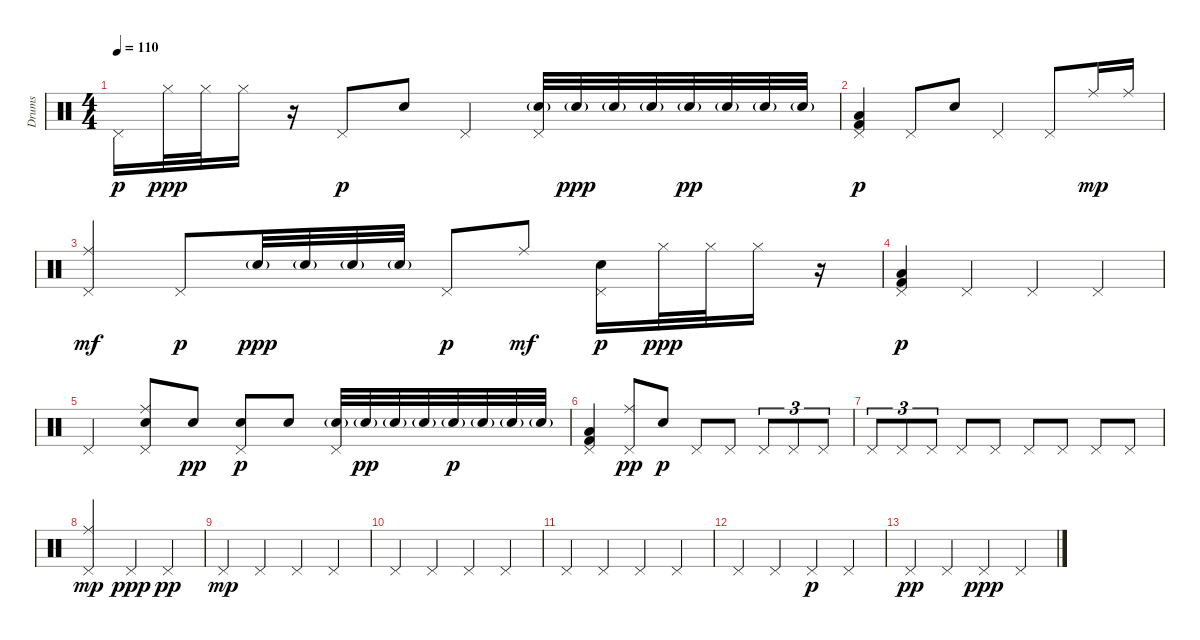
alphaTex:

\track ("Drums" "Drums") {instrument percussion}
\staff {score}
\articulation defaults
\ts (4 4)
\tempo 110
\clef neutral
\ks c "Pedal Hi-Hat (hit)".16{dy p} "Hi-Hat (closed)".32{dy ppp} "Hi-Hat (closed)".32 "Hi-Hat (closed)".16
r.16 "Pedal Hi-Hat (hit)".8{dy p} "Snare (hit) 2".8 "Pedal Hi-Hat (hit)".4 ("Snare (hit) 2"{g} "Pedal Hi-Hat (hit)").32 "Snare (hit) 2"{g}.32{dy ppp} "Snare (hit) 2"{g}.32 "Snare (hit) 2"{g}.32 "Snare (hit) 2"{g}.32{dy pp} "Snare (hit) 2"{g}.32 "Snare (hit) 2"{g}.32 "Snare (hit) 2"{g}.32 |
("Kick (hit) 2" "Low Floor Tom (hit)" "Pedal Hi-Hat (hit)").4{dy p} "Pedal Hi-Hat (hit)".8 "Snare (hit) 2".8 "Pedal Hi-Hat (hit)".4 "Pedal Hi-Hat (hit)".8 "Ride (middle)".16{dy mp} "Ride (middle)".16 |
("Pedal Hi-Hat (hit)" "Ride (middle)").4{dy mf} "Pedal Hi-Hat (hit)".8{dy p} "Snare (hit) 2"{g}.32{dy ppp} "Snare (hit) 2"{g}.32 "Snare (hit) 2"{g}.32 "Snare (hit) 2"{g}.32 "Pedal Hi-Hat (hit)".8{dy p} "Ride (middle)".8{dy mf} ("Snare (hit) 2" "Pedal Hi-Hat (hit)").16{dy p} "Hi-Hat (closed)".32{dy ppp} "Hi-Hat (closed)".32 "Hi-Hat (closed)".16 r.16 |
("Kick (hit) 2" "Low Floor Tom (hit)" "Pedal Hi-Hat (hit)").4{dy p} "Pedal Hi-Hat (hit)".4 "Pedal Hi-Hat (hit)".4 "Pedal Hi-Hat (hit)".4 |
"Pedal Hi-Hat (hit)".4 ("Snare (hit) 2" "Pedal Hi-Hat (hit)" "Ride (middle)").8 "Snare (hit) 2".8{dy pp} ("Snare (hit) 2" "Pedal Hi-Hat (hit)").8{dy p} "Snare (hit) 2".8 ("Snare (hit) 2"{g} "Pedal Hi-Hat (hit)").32 "Snare (hit) 2"{g}.32{dy pp} "Snare (hit) 2"{g}.32 "Snare (hit) 2"{g}.32 "Snare (hit) 2"{g}.32{dy p} "Snare (hit) 2"{g}.32 "Snare (hit) 2"{g}.32 "Snare (hit) 2"{g}.32 |
("Kick (hit) 2" "Low Floor Tom (hit)" "Pedal Hi-Hat (hit)").4 ("Pedal Hi-Hat (hit)" "Ride (middle)").8{dy pp} "Snare (hit) 2".8{dy p} "Pedal Hi-Hat (hit)".8 "Pedal Hi-Hat (hit)".8 "Pedal Hi-Hat (hit)".8{tu (3 2)} "Pedal Hi-Hat (hit)".8{tu (3 2)} "Pedal Hi-Hat (hit)".8{tu (3 2)} |
"Pedal Hi-Hat (hit)".8{tu (3 2)} "Pedal Hi-Hat (hit)".8{tu (3 2)} "Pedal Hi-Hat (hit)".8{tu (3 2)} "Pedal Hi-Hat (hit)".8 "Pedal Hi-Hat (hit)".8 "Pedal Hi-Hat (hit)".8 "Pedal Hi-Hat (hit)".8 "Pedal Hi-Hat (hit)".8 "Pedal Hi-Hat (hit)".8 |
("Pedal Hi-Hat (hit)" "Ride (middle)").2{dy mp} "Pedal Hi-Hat (hit)".4{dy ppp} "Pedal Hi-Hat (hit)".4{dy pp} |
"Pedal Hi-Hat (hit)".4{dy mp} "Pedal Hi-Hat (hit)".4 "Pedal Hi-Hat (hit)".4 "Pedal Hi-Hat (hit)".4 |
"Pedal Hi-Hat (hit)".4 "Pedal Hi-Hat (hit)".4 "Pedal Hi-Hat (hit)".4 "Pedal Hi-Hat (hit)".4 |
"Pedal Hi-Hat (hit)".4 "Pedal Hi-Hat (hit)".4 "Pedal Hi-Hat (hit)".4 "Pedal Hi-Hat (hit)".4 |
"Pedal Hi-Hat (hit)".4 "Pedal Hi-Hat (hit)".4 "Pedal Hi-Hat (hit)".4{dy p} "Pedal Hi-Hat (hit)".4 |
"Pedal Hi-Hat (hit)".4{dy pp} "Pedal Hi-Hat (hit)".4 "Pedal Hi-Hat (hit)".4{dy ppp} "Pedal Hi-Hat (hit)".4
